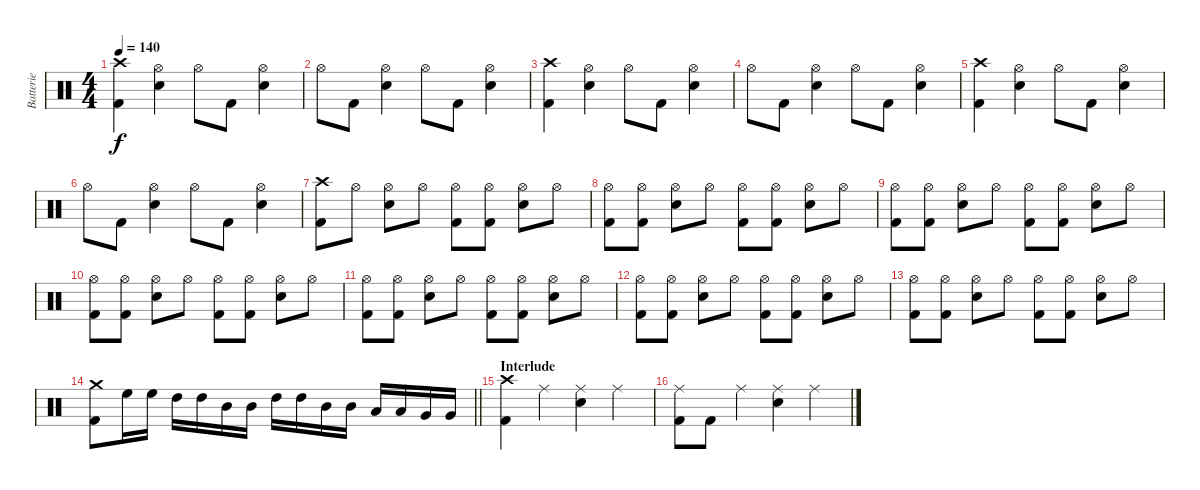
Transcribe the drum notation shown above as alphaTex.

\track ("Batterie" "Batterie") {instrument percussion}
\staff {score}
\articulation defaults
\ts (4 4)
\tempo 140
\clef neutral
\ks c
("Crash high (hit)" "Kick (hit) 2").4{dy f} ("Hi-Hat (open)" "Electric Snare (hit)").4 "Hi-Hat (open)".8 "Kick (hit) 2".8 ("Hi-Hat (open)" "Electric Snare (hit)").4 |
"Hi-Hat (open)".8 "Kick (hit) 2".8 ("Hi-Hat (open)" "Electric Snare (hit)").4 "Hi-Hat (open)".8 "Kick (hit) 2".8 ("Hi-Hat (open)" "Electric Snare (hit)").4 |
("Crash high (hit)" "Kick (hit) 2").4 ("Hi-Hat (open)" "Electric Snare (hit)").4 "Hi-Hat (open)".8 "Kick (hit) 2".8 ("Hi-Hat (open)" "Electric Snare (hit)").4 |
"Hi-Hat (open)".8 "Kick (hit) 2".8 ("Hi-Hat (open)" "Electric Snare (hit)").4 "Hi-Hat (open)".8 "Kick (hit) 2".8 ("Hi-Hat (open)" "Electric Snare (hit)").4 |
("Crash high (hit)" "Kick (hit) 2").4 ("Hi-Hat (open)" "Electric Snare (hit)").4 "Hi-Hat (open)".8 "Kick (hit) 2".8 ("Hi-Hat (open)" "Electric Snare (hit)").4 |
"Hi-Hat (open)".8 "Kick (hit) 2".8 ("Hi-Hat (open)" "Electric Snare (hit)").4 "Hi-Hat (open)".8 "Kick (hit) 2".8 ("Hi-Hat (open)" "Electric Snare (hit)").4 |
("Crash high (hit)" "Kick (hit) 2").8 "Hi-Hat (open)".8 ("Hi-Hat (open)" "Electric Snare (hit)").8 "Hi-Hat (open)".8 ("Hi-Hat (open)" "Kick (hit) 2").8 ("Hi-Hat (open)" "Kick (hit) 2").8 ("Hi-Hat (open)" "Electric Snare (hit)").8 "Hi-Hat (open)".8 |
("Hi-Hat (open)" "Kick (hit) 2").8 ("Hi-Hat (open)" "Kick (hit) 2").8 ("Hi-Hat (open)" "Electric Snare (hit)").8 "Hi-Hat (open)".8 ("Hi-Hat (open)" "Kick (hit) 2").8 ("Hi-Hat (open)" "Kick (hit) 2").8 ("Hi-Hat (open)" "Electric Snare (hit)").8 "Hi-Hat (open)".8 |
("Hi-Hat (open)" "Kick (hit) 2").8 ("Hi-Hat (open)" "Kick (hit) 2").8 ("Hi-Hat (open)" "Electric Snare (hit)").8 "Hi-Hat (open)".8 ("Hi-Hat (open)" "Kick (hit) 2").8 ("Hi-Hat (open)" "Kick (hit) 2").8 ("Hi-Hat (open)" "Electric Snare (hit)").8 "Hi-Hat (open)".8 |
("Hi-Hat (open)" "Kick (hit) 2").8 ("Hi-Hat (open)" "Kick (hit) 2").8 ("Hi-Hat (open)" "Electric Snare (hit)").8 "Hi-Hat (open)".8 ("Hi-Hat (open)" "Kick (hit) 2").8 ("Hi-Hat (open)" "Kick (hit) 2").8 ("Hi-Hat (open)" "Electric Snare (hit)").8 "Hi-Hat (open)".8 |
("Hi-Hat (open)" "Kick (hit) 2").8 ("Hi-Hat (open)" "Kick (hit) 2").8 ("Hi-Hat (open)" "Electric Snare (hit)").8 "Hi-Hat (open)".8 ("Hi-Hat (open)" "Kick (hit) 2").8 ("Hi-Hat (open)" "Kick (hit) 2").8 ("Hi-Hat (open)" "Electric Snare (hit)").8 "Hi-Hat (open)".8 |
("Hi-Hat (open)" "Kick (hit) 2").8 ("Hi-Hat (open)" "Kick (hit) 2").8 ("Hi-Hat (open)" "Electric Snare (hit)").8 "Hi-Hat (open)".8 ("Hi-Hat (open)" "Kick (hit) 2").8 ("Hi-Hat (open)" "Kick (hit) 2").8 ("Hi-Hat (open)" "Electric Snare (hit)").8 "Hi-Hat (open)".8 |
("Hi-Hat (open)" "Kick (hit) 2").8 ("Hi-Hat (open)" "Kick (hit) 2").8 ("Hi-Hat (open)" "Electric Snare (hit)").8 "Hi-Hat (open)".8 ("Hi-Hat (open)" "Kick (hit) 2").8 ("Hi-Hat (open)" "Kick (hit) 2").8 ("Hi-Hat (open)" "Electric Snare (hit)").8 "Hi-Hat (open)".8 |
\barLineRight lightlight
("Crash medium (hit)" "Kick (hit) 2").8 "High Floor Tom (hit)".16 "High Floor Tom (hit)".16 "High Tom (hit)".16 "High Tom (hit)".16 "Mid Tom (hit)".16 "Mid Tom (hit)".16 "High Tom (hit)".16 "High Tom (hit)".16 "Mid Tom (hit)".16 "Mid Tom (hit)".16 "Low Tom (hit)".16 "Low Tom (hit)".16 "Very Low Tom (hit)".16 "Very Low Tom (hit)".16 |
\section ("" "Interlude")
("Crash high (hit)" "Kick (hit) 2").4 "Ride (middle)".4 ("Ride (middle)" "Electric Snare (hit)").4 "Ride (middle)".4 |
("Ride (middle)" "Kick (hit) 2").8 "Kick (hit) 2".8 "Ride (middle)".4 ("Ride (middle)" "Electric Snare (hit)").4 "Ride (middle)".4
